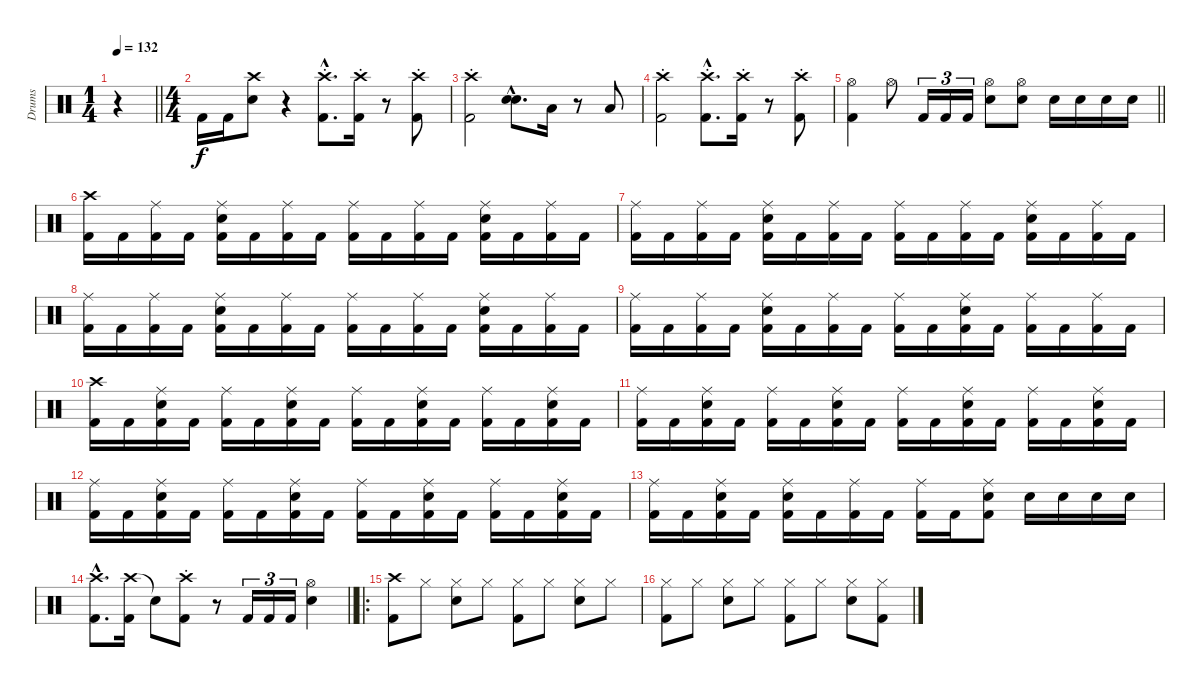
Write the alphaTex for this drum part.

\track ("Drums" "Drums") {instrument percussion}
\staff {score}
\articulation defaults
\ts (1 4)
\tempo 132
\clef neutral
\barLineRight lightlight
\ks c
r.4{dy f} |
\ts (4 4)
"Kick (hit) 2".16 "Kick (hit) 2".16 ("Crash high (hit)" "Snare (hit) 2").8 r.4 ("Crash high (hit)"{hac st} "Kick (hit) 2"{hac st}).8{d} ("Crash high (hit)"{st} "Kick (hit) 2"{st}).16 r.8 ("Crash high (hit)"{st} "Kick (hit) 2"{st}).8 |
("Crash high (hit)"{st} "Kick (hit) 2"{st}).2 ("Snare (hit) 2"{hac} "Snare (hit) 2"{hac}).8{d} "Low Tom (hit)".16 r.8 "Low Floor Tom (hit)".8 |
("Crash high (hit)"{st} "Kick (hit) 2"{st}).2 ("Crash high (hit)"{hac st} "Kick (hit) 2"{hac st}).8{d} ("Crash high (hit)"{st} "Kick (hit) 2"{st}).16 r.8 ("Crash high (hit)"{st} "Kick (hit) 2"{st}).8 |
\barLineRight lightlight
("Hi-Hat (open)" "Kick (hit) 2").4 "Hi-Hat (open)".8 "Kick (hit) 2".16{tu (3 2)} "Kick (hit) 2".16{tu (3 2)} "Kick (hit) 2".16{tu (3 2)} ("Hi-Hat (open)" "Snare (hit) 2").8 ("Hi-Hat (open)" "Snare (hit) 2").8 "Snare (hit) 2".16 "Snare (hit) 2".16 "Snare (hit) 2".16 "Snare (hit) 2".16 |
("Crash high (hit)" "Kick (hit) 2").16 "Kick (hit) 2".16 ("Ride (middle)" "Kick (hit) 2").16 "Kick (hit) 2".16 ("Ride (middle)" "Snare (hit) 2" "Kick (hit) 2").16 "Kick (hit) 2".16 ("Ride (middle)" "Kick (hit) 2").16 "Kick (hit) 2".16 ("Ride (middle)" "Kick (hit) 2").16 "Kick (hit) 2".16 ("Ride (middle)" "Kick (hit) 2").16 "Kick (hit) 2".16 ("Ride (middle)" "Snare (hit) 2" "Kick (hit) 2").16 "Kick (hit) 2".16 ("Ride (middle)" "Kick (hit) 2").16 "Kick (hit) 2".16 |
("Ride (middle)" "Kick (hit) 2").16 "Kick (hit) 2".16 ("Ride (middle)" "Kick (hit) 2").16 "Kick (hit) 2".16 ("Ride (middle)" "Snare (hit) 2" "Kick (hit) 2").16 "Kick (hit) 2".16 ("Ride (middle)" "Kick (hit) 2").16 "Kick (hit) 2".16 ("Ride (middle)" "Kick (hit) 2").16 "Kick (hit) 2".16 ("Ride (middle)" "Kick (hit) 2").16 "Kick (hit) 2".16 ("Ride (middle)" "Snare (hit) 2" "Kick (hit) 2").16 "Kick (hit) 2".16 ("Ride (middle)" "Kick (hit) 2").16 "Kick (hit) 2".16 |
("Ride (middle)" "Kick (hit) 2").16 "Kick (hit) 2".16 ("Ride (middle)" "Kick (hit) 2").16 "Kick (hit) 2".16 ("Ride (middle)" "Snare (hit) 2" "Kick (hit) 2").16 "Kick (hit) 2".16 ("Ride (middle)" "Kick (hit) 2").16 "Kick (hit) 2".16 ("Ride (middle)" "Kick (hit) 2").16 "Kick (hit) 2".16 ("Ride (middle)" "Kick (hit) 2").16 "Kick (hit) 2".16 ("Ride (middle)" "Snare (hit) 2" "Kick (hit) 2").16 "Kick (hit) 2".16 ("Ride (middle)" "Kick (hit) 2").16 "Kick (hit) 2".16 |
("Ride (middle)" "Kick (hit) 2").16 "Kick (hit) 2".16 ("Ride (middle)" "Kick (hit) 2").16 "Kick (hit) 2".16 ("Ride (middle)" "Snare (hit) 2" "Kick (hit) 2").16 "Kick (hit) 2".16 ("Ride (middle)" "Kick (hit) 2").16 "Kick (hit) 2".16 ("Ride (middle)" "Kick (hit) 2").16 "Kick (hit) 2".16 ("Ride (middle)" "Snare (hit) 2" "Kick (hit) 2").16 "Kick (hit) 2".16 ("Ride (middle)" "Kick (hit) 2").16 "Kick (hit) 2".16 ("Ride (middle)" "Kick (hit) 2").16 "Kick (hit) 2".16 |
("Crash high (hit)" "Kick (hit) 2").16 "Kick (hit) 2".16 ("Ride (middle)" "Snare (hit) 2" "Kick (hit) 2").16 "Kick (hit) 2".16 ("Ride (middle)" "Kick (hit) 2").16 "Kick (hit) 2".16 ("Ride (middle)" "Snare (hit) 2" "Kick (hit) 2").16 "Kick (hit) 2".16 ("Ride (middle)" "Kick (hit) 2").16 "Kick (hit) 2".16 ("Ride (middle)" "Snare (hit) 2" "Kick (hit) 2").16 "Kick (hit) 2".16 ("Ride (middle)" "Kick (hit) 2").16 "Kick (hit) 2".16 ("Ride (middle)" "Snare (hit) 2" "Kick (hit) 2").16 "Kick (hit) 2".16 |
("Ride (middle)" "Kick (hit) 2").16 "Kick (hit) 2".16 ("Ride (middle)" "Snare (hit) 2" "Kick (hit) 2").16 "Kick (hit) 2".16 ("Ride (middle)" "Kick (hit) 2").16 "Kick (hit) 2".16 ("Ride (middle)" "Snare (hit) 2" "Kick (hit) 2").16 "Kick (hit) 2".16 ("Ride (middle)" "Kick (hit) 2").16 "Kick (hit) 2".16 ("Ride (middle)" "Snare (hit) 2" "Kick (hit) 2").16 "Kick (hit) 2".16 ("Ride (middle)" "Kick (hit) 2").16 "Kick (hit) 2".16 ("Ride (middle)" "Snare (hit) 2" "Kick (hit) 2").16 "Kick (hit) 2".16 |
("Ride (middle)" "Kick (hit) 2").16 "Kick (hit) 2".16 ("Ride (middle)" "Snare (hit) 2" "Kick (hit) 2").16 "Kick (hit) 2".16 ("Ride (middle)" "Kick (hit) 2").16 "Kick (hit) 2".16 ("Ride (middle)" "Snare (hit) 2" "Kick (hit) 2").16 "Kick (hit) 2".16 ("Ride (middle)" "Kick (hit) 2").16 "Kick (hit) 2".16 ("Ride (middle)" "Snare (hit) 2" "Kick (hit) 2").16 "Kick (hit) 2".16 ("Ride (middle)" "Kick (hit) 2").16 "Kick (hit) 2".16 ("Ride (middle)" "Snare (hit) 2" "Kick (hit) 2").16 "Kick (hit) 2".16 |
("Ride (middle)" "Kick (hit) 2").16 "Kick (hit) 2".16 ("Ride (middle)" "Snare (hit) 2" "Kick (hit) 2").16 "Kick (hit) 2".16 ("Ride (middle)" "Snare (hit) 2" "Kick (hit) 2").16 "Kick (hit) 2".16 ("Ride (middle)" "Kick (hit) 2").16 "Kick (hit) 2".16 ("Ride (middle)" "Kick (hit) 2").16 "Kick (hit) 2".16 ("Ride (middle)" "Snare (hit) 2" "Kick (hit) 2").8 "Snare (hit) 2".16 "Snare (hit) 2".16 "Snare (hit) 2".16 "Snare (hit) 2".16 |
\barLineRight lightlight
("Crash high (hit)"{hac} "Kick (hit) 2"{hac}).8{d} ("Crash high (hit)" "Kick (hit) 2").16 "Snare (hit)"{t}.8 ("Crash high (hit)"{st} "Kick (hit) 2"{st}).8 r.8 "Kick (hit) 2".16{tu (3 2)} "Kick (hit) 2".16{tu (3 2)} "Kick (hit) 2".16{tu (3 2)} ("Hi-Hat (open)" "Snare (hit) 2").4 |
\ro
("Crash high (hit)" "Kick (hit) 2").8 "Hi-Hat (closed)".8 ("Hi-Hat (closed)" "Snare (hit) 2").8 "Hi-Hat (closed)".8 ("Hi-Hat (closed)" "Kick (hit) 2").8 "Hi-Hat (closed)".8 ("Hi-Hat (closed)" "Snare (hit) 2").8 "Hi-Hat (closed)".8 |
("Hi-Hat (closed)" "Kick (hit) 2").8 "Hi-Hat (closed)".8 ("Hi-Hat (closed)" "Snare (hit) 2").8 "Hi-Hat (closed)".8 ("Hi-Hat (closed)" "Kick (hit) 2").8 "Hi-Hat (closed)".8 ("Hi-Hat (closed)" "Snare (hit) 2").8 ("Hi-Hat (closed)" "Kick (hit) 2").8
